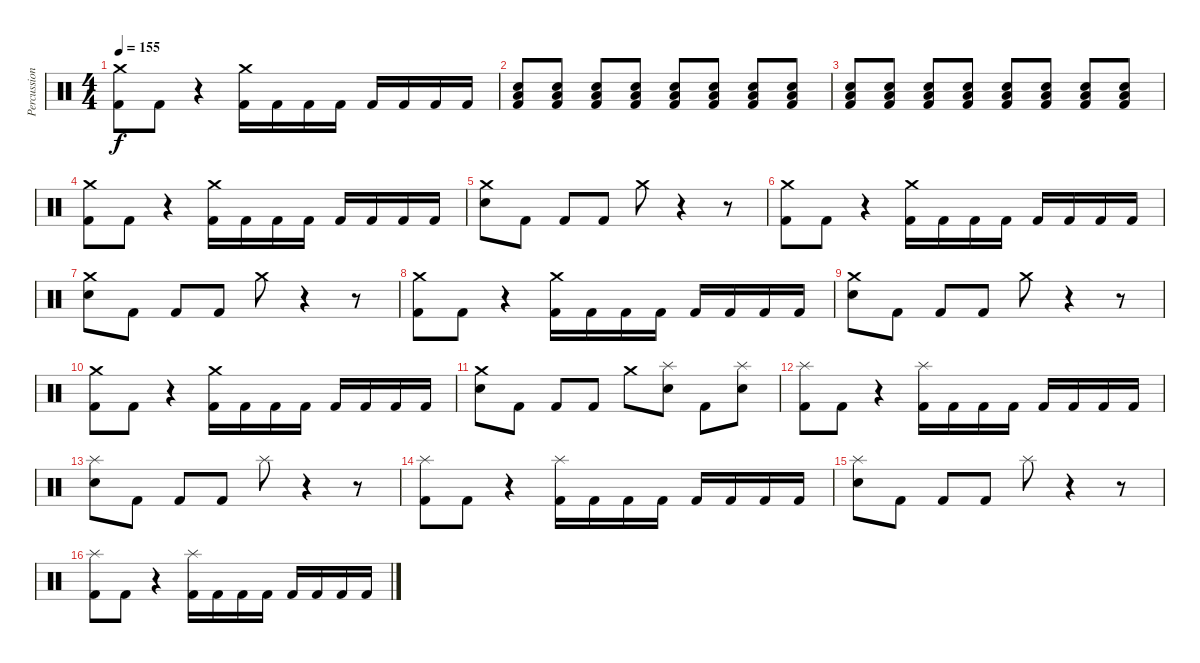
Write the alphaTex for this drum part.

\track ("Percussion" "Percussion") {instrument percussion}
\staff {score}
\articulation defaults
\ts (4 4)
\tempo 155
\clef neutral
\ks c
("Crash medium (hit)" "Kick (hit) 2").8{dy f} "Kick (hit) 2".8 r.4 ("Crash medium (hit)" "Kick (hit) 2").16 "Kick (hit) 2".16 "Kick (hit) 2".16 "Kick (hit) 2".16 "Kick (hit) 2".16 "Kick (hit) 2".16 "Kick (hit) 2".16 "Kick (hit) 2".16 |
("Kick (hit) 2" "Low Tom (hit)" "Snare (hit) 2").8 ("Kick (hit) 2" "Low Tom (hit)" "Snare (hit) 2").8 ("Kick (hit) 2" "Low Tom (hit)" "Snare (hit) 2").8 ("Kick (hit) 2" "Low Tom (hit)" "Snare (hit) 2").8 ("Kick (hit) 2" "Low Tom (hit)" "Snare (hit) 2").8 ("Kick (hit) 2" "Low Tom (hit)" "Snare (hit) 2").8 ("Kick (hit) 2" "Low Tom (hit)" "Snare (hit) 2").8 ("Kick (hit) 2" "Low Tom (hit)" "Snare (hit) 2").8 |
("Kick (hit) 2" "Low Tom (hit)" "Snare (hit) 2").8 ("Kick (hit) 2" "Low Tom (hit)" "Snare (hit) 2").8 ("Kick (hit) 2" "Low Tom (hit)" "Snare (hit) 2").8 ("Kick (hit) 2" "Low Tom (hit)" "Snare (hit) 2").8 ("Kick (hit) 2" "Low Tom (hit)" "Snare (hit) 2").8 ("Kick (hit) 2" "Low Tom (hit)" "Snare (hit) 2").8 ("Kick (hit) 2" "Low Tom (hit)" "Snare (hit) 2").8 ("Kick (hit) 2" "Low Tom (hit)" "Snare (hit) 2").8 |
("Crash medium (hit)" "Kick (hit) 2").8 "Kick (hit) 2".8 r.4 ("Crash medium (hit)" "Kick (hit) 2").16 "Kick (hit) 2".16 "Kick (hit) 2".16 "Kick (hit) 2".16 "Kick (hit) 2".16 "Kick (hit) 2".16 "Kick (hit) 2".16 "Kick (hit) 2".16 |
("Crash medium (hit)" "Snare (hit) 2").8 "Kick (hit) 2".8 "Kick (hit) 2".8 "Kick (hit) 2".8 "Crash medium (hit)".8 r.4 r.8 |
("Crash medium (hit)" "Kick (hit) 2").8 "Kick (hit) 2".8 r.4 ("Crash medium (hit)" "Kick (hit) 2").16 "Kick (hit) 2".16 "Kick (hit) 2".16 "Kick (hit) 2".16 "Kick (hit) 2".16 "Kick (hit) 2".16 "Kick (hit) 2".16 "Kick (hit) 2".16 |
("Crash medium (hit)" "Snare (hit) 2").8 "Kick (hit) 2".8 "Kick (hit) 2".8 "Kick (hit) 2".8 "Crash medium (hit)".8 r.4 r.8 |
("Crash medium (hit)" "Kick (hit) 2").8 "Kick (hit) 2".8 r.4 ("Crash medium (hit)" "Kick (hit) 2").16 "Kick (hit) 2".16 "Kick (hit) 2".16 "Kick (hit) 2".16 "Kick (hit) 2".16 "Kick (hit) 2".16 "Kick (hit) 2".16 "Kick (hit) 2".16 |
("Crash medium (hit)" "Snare (hit) 2").8 "Kick (hit) 2".8 "Kick (hit) 2".8 "Kick (hit) 2".8 "Crash medium (hit)".8 r.4 r.8 |
("Crash medium (hit)" "Kick (hit) 2").8 "Kick (hit) 2".8 r.4 ("Crash medium (hit)" "Kick (hit) 2").16 "Kick (hit) 2".16 "Kick (hit) 2".16 "Kick (hit) 2".16 "Kick (hit) 2".16 "Kick (hit) 2".16 "Kick (hit) 2".16 "Kick (hit) 2".16 |
("Crash medium (hit)" "Snare (hit) 2").8 "Kick (hit) 2".8 "Kick (hit) 2".8 "Kick (hit) 2".8 "Crash medium (hit)".8 ("Splash (hit)" "Snare (hit) 2").8 "Kick (hit) 2".8 ("Splash (hit)" "Snare (hit) 2").8 |
("Splash (hit)" "Kick (hit) 2").8 "Kick (hit) 2".8 r.4 ("Splash (hit)" "Kick (hit) 2").16 "Kick (hit) 2".16 "Kick (hit) 2".16 "Kick (hit) 2".16 "Kick (hit) 2".16 "Kick (hit) 2".16 "Kick (hit) 2".16 "Kick (hit) 2".16 |
("Splash (hit)" "Snare (hit) 2").8 "Kick (hit) 2".8 "Kick (hit) 2".8 "Kick (hit) 2".8 "Splash (hit)".8 r.4 r.8 |
("Splash (hit)" "Kick (hit) 2").8 "Kick (hit) 2".8 r.4 ("Splash (hit)" "Kick (hit) 2").16 "Kick (hit) 2".16 "Kick (hit) 2".16 "Kick (hit) 2".16 "Kick (hit) 2".16 "Kick (hit) 2".16 "Kick (hit) 2".16 "Kick (hit) 2".16 |
("Splash (hit)" "Snare (hit) 2").8 "Kick (hit) 2".8 "Kick (hit) 2".8 "Kick (hit) 2".8 "Splash (hit)".8 r.4 r.8 |
("Splash (hit)" "Kick (hit) 2").8 "Kick (hit) 2".8 r.4 ("Splash (hit)" "Kick (hit) 2").16 "Kick (hit) 2".16 "Kick (hit) 2".16 "Kick (hit) 2".16 "Kick (hit) 2".16 "Kick (hit) 2".16 "Kick (hit) 2".16 "Kick (hit) 2".16
